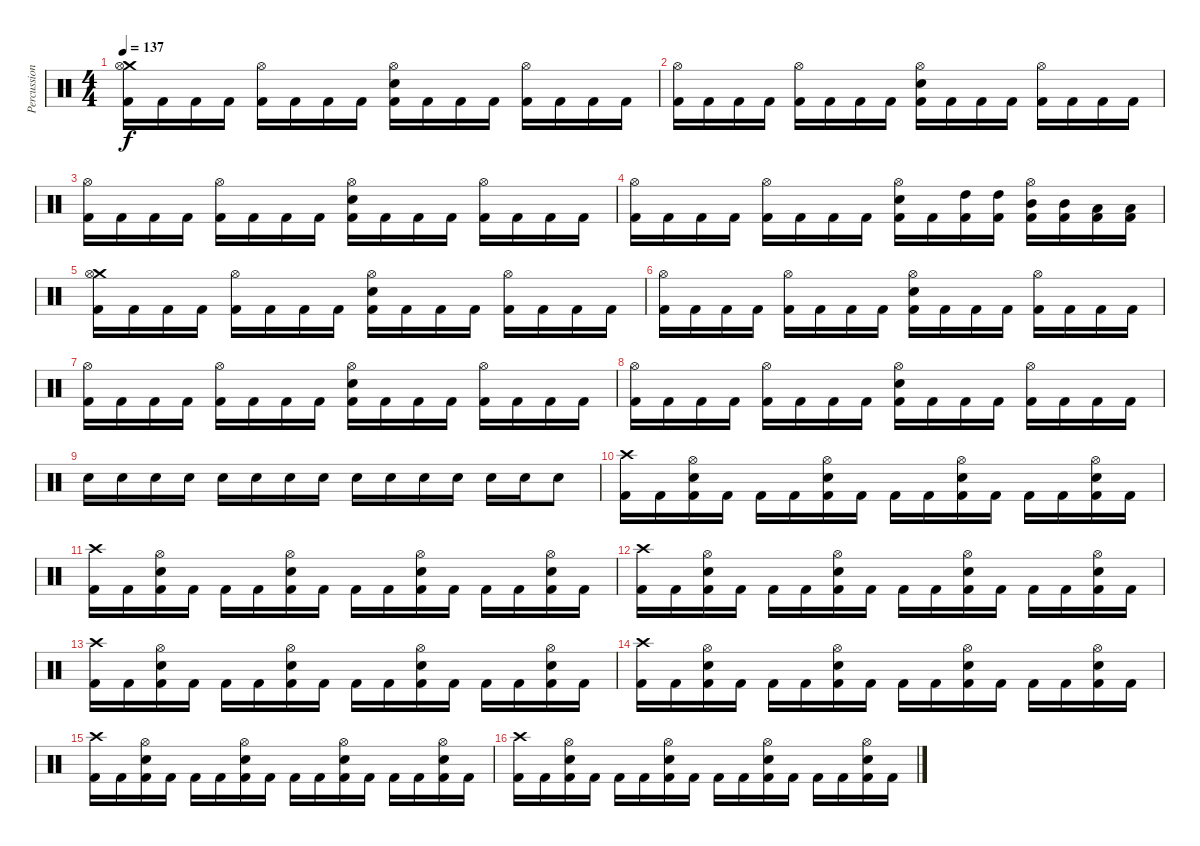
\track ("Percussion" "Percussion") {instrument percussion}
\staff {score}
\articulation defaults
\ts (4 4)
\tempo 137
\clef neutral
\ks c
("Crash medium (hit)" "Hi-Hat (open)" "Kick (hit) 2").16{dy f} "Kick (hit) 2".16 "Kick (hit) 2".16 "Kick (hit) 2".16 ("Hi-Hat (open)" "Kick (hit) 2").16 "Kick (hit) 2".16 "Kick (hit) 2".16 "Kick (hit) 2".16 ("Hi-Hat (open)" "Electric Snare (hit)" "Kick (hit) 2").16 "Kick (hit) 2".16 "Kick (hit) 2".16 "Kick (hit) 2".16 ("Hi-Hat (open)" "Kick (hit) 2").16 "Kick (hit) 2".16 "Kick (hit) 2".16 "Kick (hit) 2".16 |
("Hi-Hat (open)" "Kick (hit) 2").16 "Kick (hit) 2".16 "Kick (hit) 2".16 "Kick (hit) 2".16 ("Hi-Hat (open)" "Kick (hit) 2").16 "Kick (hit) 2".16 "Kick (hit) 2".16 "Kick (hit) 2".16 ("Hi-Hat (open)" "Electric Snare (hit)" "Kick (hit) 2").16 "Kick (hit) 2".16 "Kick (hit) 2".16 "Kick (hit) 2".16 ("Hi-Hat (open)" "Kick (hit) 2").16 "Kick (hit) 2".16 "Kick (hit) 2".16 "Kick (hit) 2".16 |
("Hi-Hat (open)" "Kick (hit) 2").16 "Kick (hit) 2".16 "Kick (hit) 2".16 "Kick (hit) 2".16 ("Hi-Hat (open)" "Kick (hit) 2").16 "Kick (hit) 2".16 "Kick (hit) 2".16 "Kick (hit) 2".16 ("Hi-Hat (open)" "Electric Snare (hit)" "Kick (hit) 2").16 "Kick (hit) 2".16 "Kick (hit) 2".16 "Kick (hit) 2".16 ("Hi-Hat (open)" "Kick (hit) 2").16 "Kick (hit) 2".16 "Kick (hit) 2".16 "Kick (hit) 2".16 |
("Hi-Hat (open)" "Kick (hit) 2").16 "Kick (hit) 2".16 "Kick (hit) 2".16 "Kick (hit) 2".16 ("Hi-Hat (open)" "Kick (hit) 2").16 "Kick (hit) 2".16 "Kick (hit) 2".16 "Kick (hit) 2".16 ("Hi-Hat (open)" "Electric Snare (hit)" "Kick (hit) 2").16 "Kick (hit) 2".16 ("High Tom (hit)" "Kick (hit) 2").16 ("High Tom (hit)" "Kick (hit) 2").16 ("Hi-Hat (open)" "Mid Tom (hit)" "Kick (hit) 2").16 ("Mid Tom (hit)" "Kick (hit) 2").16 ("Low Tom (hit)" "Kick (hit) 2").16 ("Low Tom (hit)" "Kick (hit) 2").16 |
("Crash medium (hit)" "Hi-Hat (open)" "Kick (hit) 2").16 "Kick (hit) 2".16 "Kick (hit) 2".16 "Kick (hit) 2".16 ("Hi-Hat (open)" "Kick (hit) 2").16 "Kick (hit) 2".16 "Kick (hit) 2".16 "Kick (hit) 2".16 ("Hi-Hat (open)" "Electric Snare (hit)" "Kick (hit) 2").16 "Kick (hit) 2".16 "Kick (hit) 2".16 "Kick (hit) 2".16 ("Hi-Hat (open)" "Kick (hit) 2").16 "Kick (hit) 2".16 "Kick (hit) 2".16 "Kick (hit) 2".16 |
("Hi-Hat (open)" "Kick (hit) 2").16 "Kick (hit) 2".16 "Kick (hit) 2".16 "Kick (hit) 2".16 ("Hi-Hat (open)" "Kick (hit) 2").16 "Kick (hit) 2".16 "Kick (hit) 2".16 "Kick (hit) 2".16 ("Hi-Hat (open)" "Electric Snare (hit)" "Kick (hit) 2").16 "Kick (hit) 2".16 "Kick (hit) 2".16 "Kick (hit) 2".16 ("Hi-Hat (open)" "Kick (hit) 2").16 "Kick (hit) 2".16 "Kick (hit) 2".16 "Kick (hit) 2".16 |
("Hi-Hat (open)" "Kick (hit) 2").16 "Kick (hit) 2".16 "Kick (hit) 2".16 "Kick (hit) 2".16 ("Hi-Hat (open)" "Kick (hit) 2").16 "Kick (hit) 2".16 "Kick (hit) 2".16 "Kick (hit) 2".16 ("Hi-Hat (open)" "Electric Snare (hit)" "Kick (hit) 2").16 "Kick (hit) 2".16 "Kick (hit) 2".16 "Kick (hit) 2".16 ("Hi-Hat (open)" "Kick (hit) 2").16 "Kick (hit) 2".16 "Kick (hit) 2".16 "Kick (hit) 2".16 |
("Hi-Hat (open)" "Kick (hit) 2").16 "Kick (hit) 2".16 "Kick (hit) 2".16 "Kick (hit) 2".16 ("Hi-Hat (open)" "Kick (hit) 2").16 "Kick (hit) 2".16 "Kick (hit) 2".16 "Kick (hit) 2".16 ("Hi-Hat (open)" "Electric Snare (hit)" "Kick (hit) 2").16 "Kick (hit) 2".16 "Kick (hit) 2".16 "Kick (hit) 2".16 ("Hi-Hat (open)" "Kick (hit) 2").16 "Kick (hit) 2".16 "Kick (hit) 2".16 "Kick (hit) 2".16 |
"Electric Snare (hit)".16 "Electric Snare (hit)".16 "Electric Snare (hit)".16 "Electric Snare (hit)".16 "Electric Snare (hit)".16 "Electric Snare (hit)".16 "Electric Snare (hit)".16 "Electric Snare (hit)".16 "Electric Snare (hit)".16 "Electric Snare (hit)".16 "Electric Snare (hit)".16 "Electric Snare (hit)".16 "Electric Snare (hit)".16 "Electric Snare (hit)".16 "Electric Snare (hit)".8 |
("Crash high (hit)" "Kick (hit) 2").16 "Kick (hit) 2".16 ("Hi-Hat (open)" "Electric Snare (hit)" "Kick (hit) 2").16 "Kick (hit) 2".16 "Kick (hit) 2".16 "Kick (hit) 2".16 ("Hi-Hat (open)" "Electric Snare (hit)" "Kick (hit) 2").16 "Kick (hit) 2".16 "Kick (hit) 2".16 "Kick (hit) 2".16 ("Hi-Hat (open)" "Electric Snare (hit)" "Kick (hit) 2").16 "Kick (hit) 2".16 "Kick (hit) 2".16 "Kick (hit) 2".16 ("Hi-Hat (open)" "Electric Snare (hit)" "Kick (hit) 2").16 "Kick (hit) 2".16 |
("Crash high (hit)" "Kick (hit) 2").16 "Kick (hit) 2".16 ("Hi-Hat (open)" "Electric Snare (hit)" "Kick (hit) 2").16 "Kick (hit) 2".16 "Kick (hit) 2".16 "Kick (hit) 2".16 ("Hi-Hat (open)" "Electric Snare (hit)" "Kick (hit) 2").16 "Kick (hit) 2".16 "Kick (hit) 2".16 "Kick (hit) 2".16 ("Hi-Hat (open)" "Electric Snare (hit)" "Kick (hit) 2").16 "Kick (hit) 2".16 "Kick (hit) 2".16 "Kick (hit) 2".16 ("Hi-Hat (open)" "Electric Snare (hit)" "Kick (hit) 2").16 "Kick (hit) 2".16 |
("Crash high (hit)" "Kick (hit) 2").16 "Kick (hit) 2".16 ("Hi-Hat (open)" "Electric Snare (hit)" "Kick (hit) 2").16 "Kick (hit) 2".16 "Kick (hit) 2".16 "Kick (hit) 2".16 ("Hi-Hat (open)" "Electric Snare (hit)" "Kick (hit) 2").16 "Kick (hit) 2".16 "Kick (hit) 2".16 "Kick (hit) 2".16 ("Hi-Hat (open)" "Electric Snare (hit)" "Kick (hit) 2").16 "Kick (hit) 2".16 "Kick (hit) 2".16 "Kick (hit) 2".16 ("Hi-Hat (open)" "Electric Snare (hit)" "Kick (hit) 2").16 "Kick (hit) 2".16 |
("Crash high (hit)" "Kick (hit) 2").16 "Kick (hit) 2".16 ("Hi-Hat (open)" "Electric Snare (hit)" "Kick (hit) 2").16 "Kick (hit) 2".16 "Kick (hit) 2".16 "Kick (hit) 2".16 ("Hi-Hat (open)" "Electric Snare (hit)" "Kick (hit) 2").16 "Kick (hit) 2".16 "Kick (hit) 2".16 "Kick (hit) 2".16 ("Hi-Hat (open)" "Electric Snare (hit)" "Kick (hit) 2").16 "Kick (hit) 2".16 "Kick (hit) 2".16 "Kick (hit) 2".16 ("Hi-Hat (open)" "Electric Snare (hit)" "Kick (hit) 2").16 "Kick (hit) 2".16 |
("Crash high (hit)" "Kick (hit) 2").16 "Kick (hit) 2".16 ("Hi-Hat (open)" "Electric Snare (hit)" "Kick (hit) 2").16 "Kick (hit) 2".16 "Kick (hit) 2".16 "Kick (hit) 2".16 ("Hi-Hat (open)" "Electric Snare (hit)" "Kick (hit) 2").16 "Kick (hit) 2".16 "Kick (hit) 2".16 "Kick (hit) 2".16 ("Hi-Hat (open)" "Electric Snare (hit)" "Kick (hit) 2").16 "Kick (hit) 2".16 "Kick (hit) 2".16 "Kick (hit) 2".16 ("Hi-Hat (open)" "Electric Snare (hit)" "Kick (hit) 2").16 "Kick (hit) 2".16 |
("Crash high (hit)" "Kick (hit) 2").16 "Kick (hit) 2".16 ("Hi-Hat (open)" "Electric Snare (hit)" "Kick (hit) 2").16 "Kick (hit) 2".16 "Kick (hit) 2".16 "Kick (hit) 2".16 ("Hi-Hat (open)" "Electric Snare (hit)" "Kick (hit) 2").16 "Kick (hit) 2".16 "Kick (hit) 2".16 "Kick (hit) 2".16 ("Hi-Hat (open)" "Electric Snare (hit)" "Kick (hit) 2").16 "Kick (hit) 2".16 "Kick (hit) 2".16 "Kick (hit) 2".16 ("Hi-Hat (open)" "Electric Snare (hit)" "Kick (hit) 2").16 "Kick (hit) 2".16 |
("Crash high (hit)" "Kick (hit) 2").16 "Kick (hit) 2".16 ("Hi-Hat (open)" "Electric Snare (hit)" "Kick (hit) 2").16 "Kick (hit) 2".16 "Kick (hit) 2".16 "Kick (hit) 2".16 ("Hi-Hat (open)" "Electric Snare (hit)" "Kick (hit) 2").16 "Kick (hit) 2".16 "Kick (hit) 2".16 "Kick (hit) 2".16 ("Hi-Hat (open)" "Electric Snare (hit)" "Kick (hit) 2").16 "Kick (hit) 2".16 "Kick (hit) 2".16 "Kick (hit) 2".16 ("Hi-Hat (open)" "Electric Snare (hit)" "Kick (hit) 2").16 "Kick (hit) 2".16
